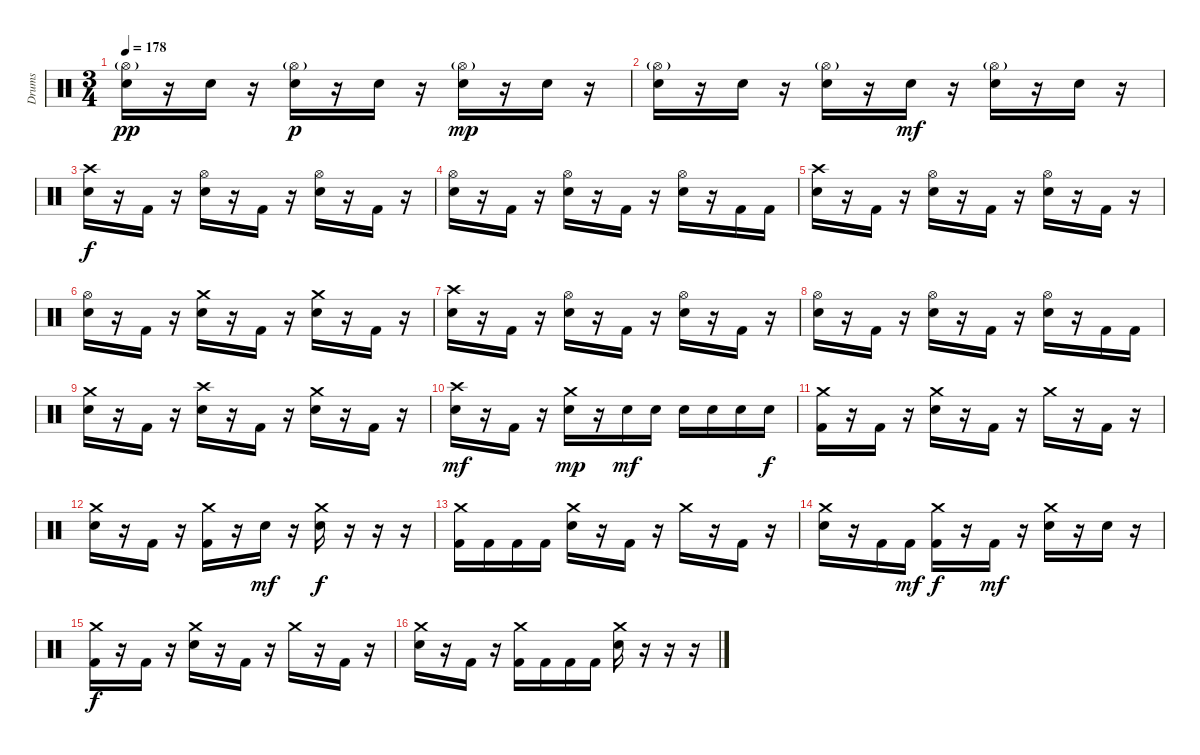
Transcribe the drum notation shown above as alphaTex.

\track ("Drums" "Drums") {instrument percussion}
\staff {score}
\articulation defaults
\ts (3 4)
\tempo 178
\clef neutral
\ks c
("Hi-Hat (open)"{g} "Electric Snare (hit)").16{dy pp} r.16 "Electric Snare (hit)".16 r.16 ("Hi-Hat (open)"{g} "Electric Snare (hit)").16{dy p} r.16 "Electric Snare (hit)".16 r.16 ("Hi-Hat (open)"{g} "Electric Snare (hit)").16{dy mp} r.16 "Electric Snare (hit)".16 r.16 |
("Hi-Hat (open)"{g} "Electric Snare (hit)").16 r.16 "Electric Snare (hit)".16 r.16 ("Hi-Hat (open)"{g} "Electric Snare (hit)").16 r.16 "Electric Snare (hit)".16{dy mf} r.16 ("Hi-Hat (open)"{g} "Electric Snare (hit)").16 r.16 "Electric Snare (hit)".16 r.16 |
("Crash high (hit)" "Electric Snare (hit)").16{dy f} r.16 "Kick (hit) 2".16 r.16 ("Hi-Hat (open)" "Electric Snare (hit)").16 r.16 "Kick (hit) 2".16 r.16 ("Hi-Hat (open)" "Electric Snare (hit)").16 r.16 "Kick (hit) 2".16 r.16 |
("Hi-Hat (open)" "Electric Snare (hit)").16 r.16 "Kick (hit) 2".16 r.16 ("Hi-Hat (open)" "Electric Snare (hit)").16 r.16 "Kick (hit) 2".16 r.16 ("Hi-Hat (open)" "Electric Snare (hit)").16 r.16 "Kick (hit) 2".16 "Kick (hit) 2".16 |
("Crash high (hit)" "Electric Snare (hit)").16 r.16 "Kick (hit) 2".16 r.16 ("Hi-Hat (open)" "Electric Snare (hit)").16 r.16 "Kick (hit) 2".16 r.16 ("Hi-Hat (open)" "Electric Snare (hit)").16 r.16 "Kick (hit) 2".16 r.16 |
("Hi-Hat (open)" "Electric Snare (hit)").16 r.16 "Kick (hit) 2".16 r.16 ("Crash medium (hit)" "Electric Snare (hit)").16 r.16 "Kick (hit) 2".16 r.16 ("Crash medium (hit)" "Electric Snare (hit)").16 r.16 "Kick (hit) 2".16 r.16 |
("Crash high (hit)" "Electric Snare (hit)").16 r.16 "Kick (hit) 2".16 r.16 ("Hi-Hat (open)" "Electric Snare (hit)").16 r.16 "Kick (hit) 2".16 r.16 ("Hi-Hat (open)" "Electric Snare (hit)").16 r.16 "Kick (hit) 2".16 r.16 |
("Hi-Hat (open)" "Electric Snare (hit)").16 r.16 "Kick (hit) 2".16 r.16 ("Hi-Hat (open)" "Electric Snare (hit)").16 r.16 "Kick (hit) 2".16 r.16 ("Hi-Hat (open)" "Electric Snare (hit)").16 r.16 "Kick (hit) 2".16 "Kick (hit) 2".16 |
("Crash medium (hit)" "Electric Snare (hit)").16 r.16 "Kick (hit) 2".16 r.16 ("Crash high (hit)" "Electric Snare (hit)").16 r.16 "Kick (hit) 2".16 r.16 ("Crash medium (hit)" "Electric Snare (hit)").16 r.16 "Kick (hit) 2".16 r.16 |
("Crash high (hit)" "Electric Snare (hit)").16{dy mf} r.16 "Kick (hit) 2".16 r.16 ("Crash medium (hit)" "Electric Snare (hit)").16{dy mp} r.16 "Electric Snare (hit)".16{dy mf} "Electric Snare (hit)".16 "Electric Snare (hit)".16 "Electric Snare (hit)".16 "Electric Snare (hit)".16 "Electric Snare (hit)".16{dy f} |
("Crash medium (hit)" "Kick (hit) 2").16 r.16 "Kick (hit) 2".16 r.16 ("Crash medium (hit)" "Electric Snare (hit)").16 r.16 "Kick (hit) 2".16 r.16 "Crash medium (hit)".16 r.16 "Kick (hit) 2".16 r.16 |
("Crash medium (hit)" "Electric Snare (hit)").16 r.16 "Kick (hit) 2".16 r.16 ("Crash medium (hit)" "Kick (hit) 2").16 r.16 "Electric Snare (hit)".16{dy mf} r.16 ("Crash medium (hit)" "Electric Snare (hit)").16{dy f} r.16 r.16 r.16 |
("Crash medium (hit)" "Kick (hit) 2").16 "Kick (hit) 2".16 "Kick (hit) 2".16 "Kick (hit) 2".16 ("Crash medium (hit)" "Electric Snare (hit)").16 r.16 "Kick (hit) 2".16 r.16 "Crash medium (hit)".16 r.16 "Kick (hit) 2".16 r.16 |
("Crash medium (hit)" "Electric Snare (hit)").16 r.16 "Kick (hit) 2".16 "Kick (hit) 2".16{dy mf} ("Crash medium (hit)" "Kick (hit) 2").16{dy f} r.16 "Kick (hit) 2".16{dy mf} r.16 ("Crash medium (hit)" "Electric Snare (hit)").16 r.16 "Electric Snare (hit)".16 r.16 |
("Crash medium (hit)" "Kick (hit) 2").16{dy f} r.16 "Kick (hit) 2".16 r.16 ("Crash medium (hit)" "Electric Snare (hit)").16 r.16 "Kick (hit) 2".16 r.16 "Crash medium (hit)".16 r.16 "Kick (hit) 2".16 r.16 |
("Crash medium (hit)" "Electric Snare (hit)").16 r.16 "Kick (hit) 2".16 r.16 ("Crash medium (hit)" "Kick (hit) 2").16 "Kick (hit) 2".16 "Kick (hit) 2".16 "Kick (hit) 2".16 ("Crash medium (hit)" "Electric Snare (hit)").16 r.16 r.16 r.16
